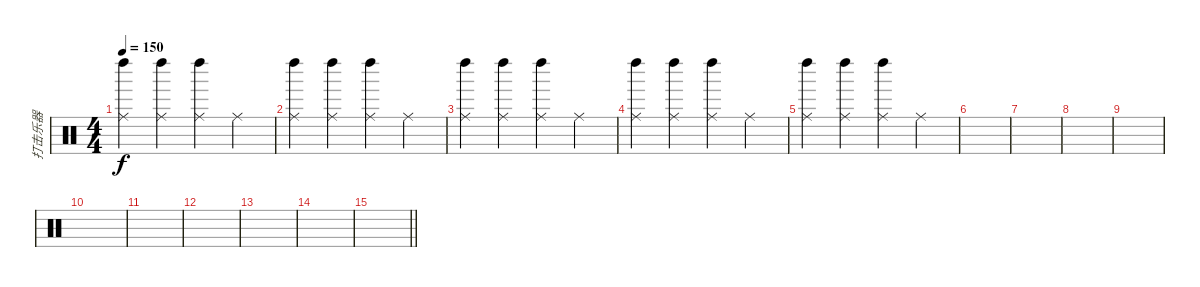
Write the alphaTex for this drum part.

\track ("打击乐器" "打击乐器") {instrument percussion bank 2}
\staff {score}
\articulation defaults
\ts (4 4)
\tempo 150
\clef neutral
\ks c
("Left Maraca (hit)" "Ride (middle)").4{dy f} ("Left Maraca (hit)" "Ride (middle)").4 ("Left Maraca (hit)" "Ride (middle)").4 "Ride (middle)".4 |
("Left Maraca (hit)" "Ride (middle)").4 ("Left Maraca (hit)" "Ride (middle)").4 ("Left Maraca (hit)" "Ride (middle)").4 "Ride (middle)".4 |
("Left Maraca (hit)" "Ride (middle)").4 ("Left Maraca (hit)" "Ride (middle)").4 ("Left Maraca (hit)" "Ride (middle)").4 "Ride (middle)".4 |
("Left Maraca (hit)" "Ride (middle)").4 ("Left Maraca (hit)" "Ride (middle)").4 ("Left Maraca (hit)" "Ride (middle)").4 "Ride (middle)".4 |
("Left Maraca (hit)" "Ride (middle)").4 ("Left Maraca (hit)" "Ride (middle)").4 ("Left Maraca (hit)" "Ride (middle)").4 "Ride (middle)".4 |
|
|
|
|
|
|
|
|
|
\barLineRight lightlight
